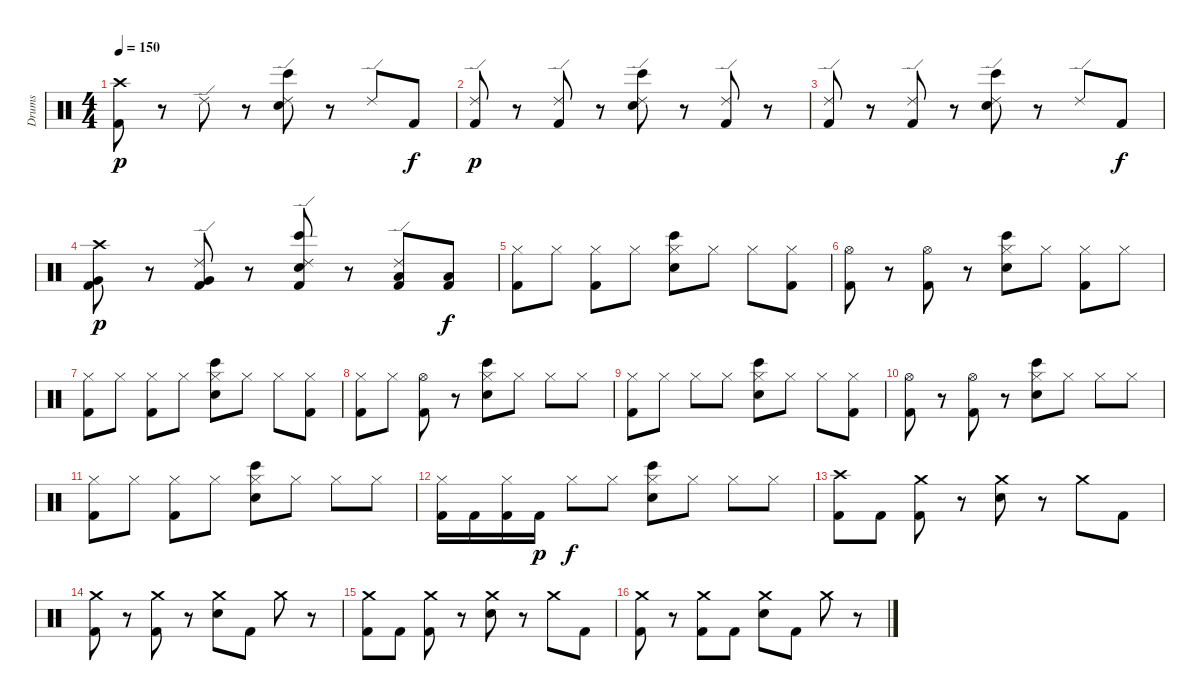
\track ("Drums" "Drums") {instrument percussion}
\staff {score}
\articulation defaults
\ts (4 4)
\tempo 150
\clef neutral
\ks c
("Crash high (hit)" "Kick (hit) 2").8{dy p} r.8 "Ride (edge) 2".8 r.8 ("Ride (edge) 2" "Bongo High (hit)" "Electric Snare (hit)").8 r.8 "Ride (edge) 2".8 "Kick (hit) 2".8{dy f} |
("Ride (edge) 2" "Kick (hit) 2").8{dy p} r.8 ("Ride (edge) 2" "Kick (hit) 2").8 r.8 ("Ride (edge) 2" "Bongo High (hit)" "Electric Snare (hit)").8 r.8 ("Ride (edge) 2" "Kick (hit) 2").8 r.8 |
("Ride (edge) 2" "Kick (hit) 2").8 r.8 ("Ride (edge) 2" "Kick (hit) 2").8 r.8 ("Ride (edge) 2" "Bongo High (hit)" "Electric Snare (hit)").8 r.8 "Ride (edge) 2".8 "Kick (hit) 2".8{dy f} |
("Crash high (hit)" "Very Low Tom (hit)" "Kick (hit) 2").8{dy p} r.8 ("Ride (edge) 2" "Very Low Tom (hit)" "Kick (hit) 2").8 r.8 ("Ride (edge) 2" "Bongo High (hit)" "Electric Snare (hit)" "Kick (hit) 2").8 r.8 ("Ride (edge) 2" "Low Tom (hit)" "Kick (hit) 2").8 ("Low Tom (hit)" "Kick (hit) 2").8{dy f} |
("Hi-Hat (closed)" "Kick (hit) 2").8 "Hi-Hat (closed)".8 ("Hi-Hat (closed)" "Kick (hit) 2").8 "Hi-Hat (closed)".8 ("Hi-Hat (closed)" "Bongo High (hit)" "Electric Snare (hit)").8 "Hi-Hat (closed)".8 "Hi-Hat (closed)".8 ("Hi-Hat (closed)" "Kick (hit) 2").8 |
("Hi-Hat (open)" "Kick (hit) 2").8 r.8 ("Hi-Hat (open)" "Kick (hit) 2").8 r.8 ("Hi-Hat (closed)" "Bongo High (hit)" "Electric Snare (hit)").8 "Hi-Hat (closed)".8 ("Hi-Hat (closed)" "Kick (hit) 2").8 "Hi-Hat (closed)".8 |
("Hi-Hat (closed)" "Kick (hit) 2").8 "Hi-Hat (closed)".8 ("Hi-Hat (closed)" "Kick (hit) 2").8 "Hi-Hat (closed)".8 ("Hi-Hat (closed)" "Bongo High (hit)" "Electric Snare (hit)").8 "Hi-Hat (closed)".8 "Hi-Hat (closed)".8 ("Hi-Hat (closed)" "Kick (hit) 2").8 |
("Hi-Hat (closed)" "Kick (hit) 2").8 "Hi-Hat (closed)".8 ("Hi-Hat (open)" "Kick (hit) 2").8 r.8 ("Hi-Hat (closed)" "Bongo High (hit)" "Electric Snare (hit)").8 "Hi-Hat (closed)".8 "Hi-Hat (closed)".8 "Hi-Hat (closed)".8 |
("Hi-Hat (closed)" "Kick (hit) 2").8 "Hi-Hat (closed)".8 "Hi-Hat (closed)".8 "Hi-Hat (closed)".8 ("Hi-Hat (closed)" "Bongo High (hit)" "Electric Snare (hit)").8 "Hi-Hat (closed)".8 "Hi-Hat (closed)".8 ("Hi-Hat (closed)" "Kick (hit) 2").8 |
("Hi-Hat (open)" "Kick (hit) 2").8 r.8 ("Hi-Hat (open)" "Kick (hit) 2").8 r.8 ("Hi-Hat (closed)" "Bongo High (hit)" "Electric Snare (hit)").8 "Hi-Hat (closed)".8 "Hi-Hat (closed)".8 "Hi-Hat (closed)".8 |
("Hi-Hat (closed)" "Kick (hit) 2").8 "Hi-Hat (closed)".8 ("Hi-Hat (closed)" "Kick (hit) 2").8 "Hi-Hat (closed)".8 ("Hi-Hat (closed)" "Bongo High (hit)" "Electric Snare (hit)").8 "Hi-Hat (closed)".8 "Hi-Hat (closed)".8 "Hi-Hat (closed)".8 |
("Hi-Hat (closed)" "Kick (hit) 2").16 "Kick (hit) 2".16 ("Hi-Hat (closed)" "Kick (hit) 2").16 "Kick (hit) 2".16{dy p} "Hi-Hat (closed)".8{dy f} "Hi-Hat (closed)".8 ("Hi-Hat (closed)" "Bongo High (hit)" "Electric Snare (hit)").8 "Hi-Hat (closed)".8 "Hi-Hat (closed)".8 "Hi-Hat (closed)".8 |
("Crash high (hit)" "Kick (hit) 2").8 "Kick (hit) 2".8 ("Crash medium (hit)" "Kick (hit) 2").8 r.8 ("Crash medium (hit)" "Electric Snare (hit)").8 r.8 "Crash medium (hit)".8 "Kick (hit) 2".8 |
("Crash medium (hit)" "Kick (hit) 2").8 r.8 ("Crash medium (hit)" "Kick (hit) 2").8 r.8 ("Crash medium (hit)" "Electric Snare (hit)").8 "Kick (hit) 2".8 "Crash medium (hit)".8 r.8 |
("Crash medium (hit)" "Kick (hit) 2").8 "Kick (hit) 2".8 ("Crash medium (hit)" "Kick (hit) 2").8 r.8 ("Crash medium (hit)" "Electric Snare (hit)").8 r.8 "Crash medium (hit)".8 "Kick (hit) 2".8 |
("Crash medium (hit)" "Kick (hit) 2").8 r.8 ("Crash medium (hit)" "Kick (hit) 2").8 "Kick (hit) 2".8 ("Crash medium (hit)" "Electric Snare (hit)").8 "Kick (hit) 2".8 "Crash medium (hit)".8 r.8
